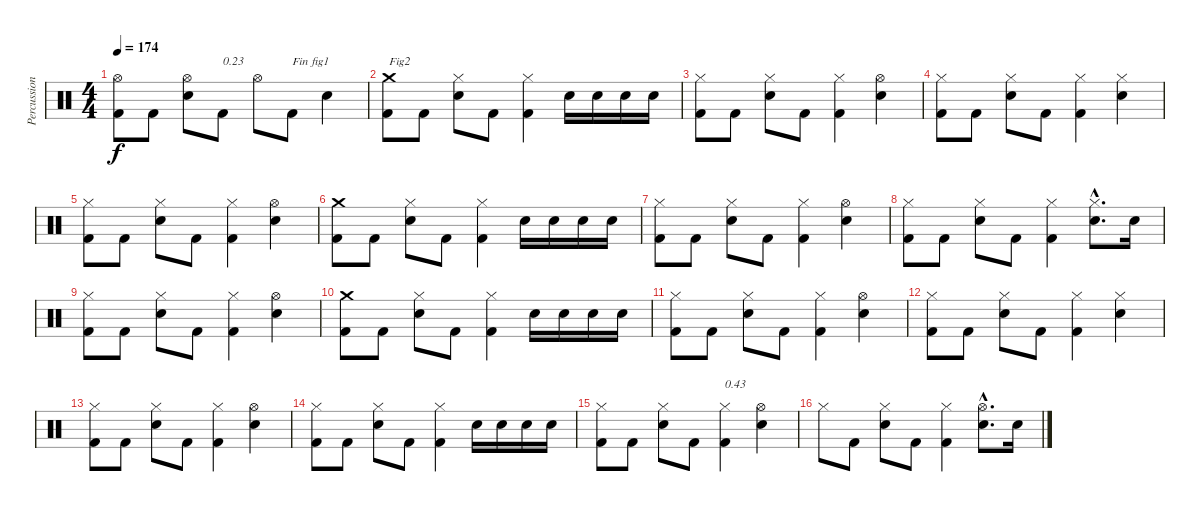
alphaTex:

\track ("Percussions" "Percussion") {instrument percussion}
\staff {score}
\articulation defaults
\ts (4 4)
\tempo 174
\clef neutral
\ks c
("Kick (hit) 2" "Hi-Hat (open)").8{dy f} "Kick (hit) 2".8 ("Electric Snare (hit)" "Hi-Hat (open)").8 "Kick (hit) 2".8{txt "0.23"} "Hi-Hat (open)".8 "Kick (hit) 2".8{txt "Fin fig1"} "Electric Snare (hit)".4 |
("Kick (hit) 2" "Crash medium (hit)").8{txt "Fig2"} "Kick (hit) 2".8 ("Electric Snare (hit)" "Hi-Hat (closed)").8 "Kick (hit) 2".8 ("Kick (hit) 2" "Hi-Hat (closed)").4 "Electric Snare (hit)".16 "Electric Snare (hit)".16 "Electric Snare (hit)".16 "Electric Snare (hit)".16 |
("Kick (hit) 2" "Hi-Hat (closed)").8 "Kick (hit) 2".8 ("Electric Snare (hit)" "Hi-Hat (closed)").8 "Kick (hit) 2".8 ("Kick (hit) 2" "Hi-Hat (closed)").4 ("Electric Snare (hit)" "Hi-Hat (open)").4 |
("Kick (hit) 2" "Hi-Hat (closed)").8 "Kick (hit) 2".8 ("Electric Snare (hit)" "Hi-Hat (closed)").8 "Kick (hit) 2".8 ("Kick (hit) 2" "Hi-Hat (closed)").4 ("Electric Snare (hit)" "Hi-Hat (closed)").4 |
("Kick (hit) 2" "Hi-Hat (closed)").8 "Kick (hit) 2".8 ("Electric Snare (hit)" "Hi-Hat (closed)").8 "Kick (hit) 2".8 ("Kick (hit) 2" "Hi-Hat (closed)").4 ("Electric Snare (hit)" "Hi-Hat (open)").4 |
("Kick (hit) 2" "Crash medium (hit)").8 "Kick (hit) 2".8 ("Electric Snare (hit)" "Hi-Hat (closed)").8 "Kick (hit) 2".8 ("Kick (hit) 2" "Hi-Hat (closed)").4 "Electric Snare (hit)".16 "Electric Snare (hit)".16 "Electric Snare (hit)".16 "Electric Snare (hit)".16 |
("Kick (hit) 2" "Hi-Hat (closed)").8 "Kick (hit) 2".8 ("Electric Snare (hit)" "Hi-Hat (closed)").8 "Kick (hit) 2".8 ("Kick (hit) 2" "Hi-Hat (closed)").4 ("Electric Snare (hit)" "Hi-Hat (open)").4 |
("Kick (hit) 2" "Hi-Hat (closed)").8 "Kick (hit) 2".8 ("Electric Snare (hit)" "Hi-Hat (closed)").8 "Kick (hit) 2".8 ("Kick (hit) 2" "Hi-Hat (closed)").4 ("Electric Snare (hit)"{hac} "Hi-Hat (closed)"{hac}).8{d} "Electric Snare (hit)".16 |
("Kick (hit) 2" "Hi-Hat (closed)").8 "Kick (hit) 2".8 ("Electric Snare (hit)" "Hi-Hat (closed)").8 "Kick (hit) 2".8 ("Kick (hit) 2" "Hi-Hat (closed)").4 ("Electric Snare (hit)" "Hi-Hat (open)").4 |
("Kick (hit) 2" "Crash medium (hit)").8 "Kick (hit) 2".8 ("Electric Snare (hit)" "Hi-Hat (closed)").8 "Kick (hit) 2".8 ("Kick (hit) 2" "Hi-Hat (closed)").4 "Electric Snare (hit)".16 "Electric Snare (hit)".16 "Electric Snare (hit)".16 "Electric Snare (hit)".16 |
("Kick (hit) 2" "Hi-Hat (closed)").8 "Kick (hit) 2".8 ("Electric Snare (hit)" "Hi-Hat (closed)").8 "Kick (hit) 2".8 ("Kick (hit) 2" "Hi-Hat (closed)").4 ("Electric Snare (hit)" "Hi-Hat (open)").4 |
("Kick (hit) 2" "Hi-Hat (closed)").8 "Kick (hit) 2".8 ("Electric Snare (hit)" "Hi-Hat (closed)").8 "Kick (hit) 2".8 ("Kick (hit) 2" "Hi-Hat (closed)").4 ("Electric Snare (hit)" "Hi-Hat (closed)").4 |
("Kick (hit) 2" "Hi-Hat (closed)").8 "Kick (hit) 2".8 ("Electric Snare (hit)" "Hi-Hat (closed)").8 "Kick (hit) 2".8 ("Kick (hit) 2" "Hi-Hat (closed)").4 ("Electric Snare (hit)" "Hi-Hat (open)").4 |
("Kick (hit) 2" "Hi-Hat (closed)").8 "Kick (hit) 2".8 ("Electric Snare (hit)" "Hi-Hat (closed)").8 "Kick (hit) 2".8 ("Kick (hit) 2" "Hi-Hat (closed)").4 "Electric Snare (hit)".16 "Electric Snare (hit)".16 "Electric Snare (hit)".16 "Electric Snare (hit)".16 |
("Kick (hit) 2" "Hi-Hat (closed)").8 "Kick (hit) 2".8 ("Electric Snare (hit)" "Hi-Hat (closed)").8 "Kick (hit) 2".8 ("Kick (hit) 2" "Hi-Hat (closed)").4{txt "0.43"} ("Electric Snare (hit)" "Hi-Hat (open)").4 |
"Hi-Hat (closed)".8 "Kick (hit) 2".8 ("Electric Snare (hit)" "Hi-Hat (closed)").8 "Kick (hit) 2".8 ("Kick (hit) 2" "Hi-Hat (closed)").4 ("Electric Snare (hit)"{hac} "Hi-Hat (open)"{hac}).8{d} "Electric Snare (hit)".16
